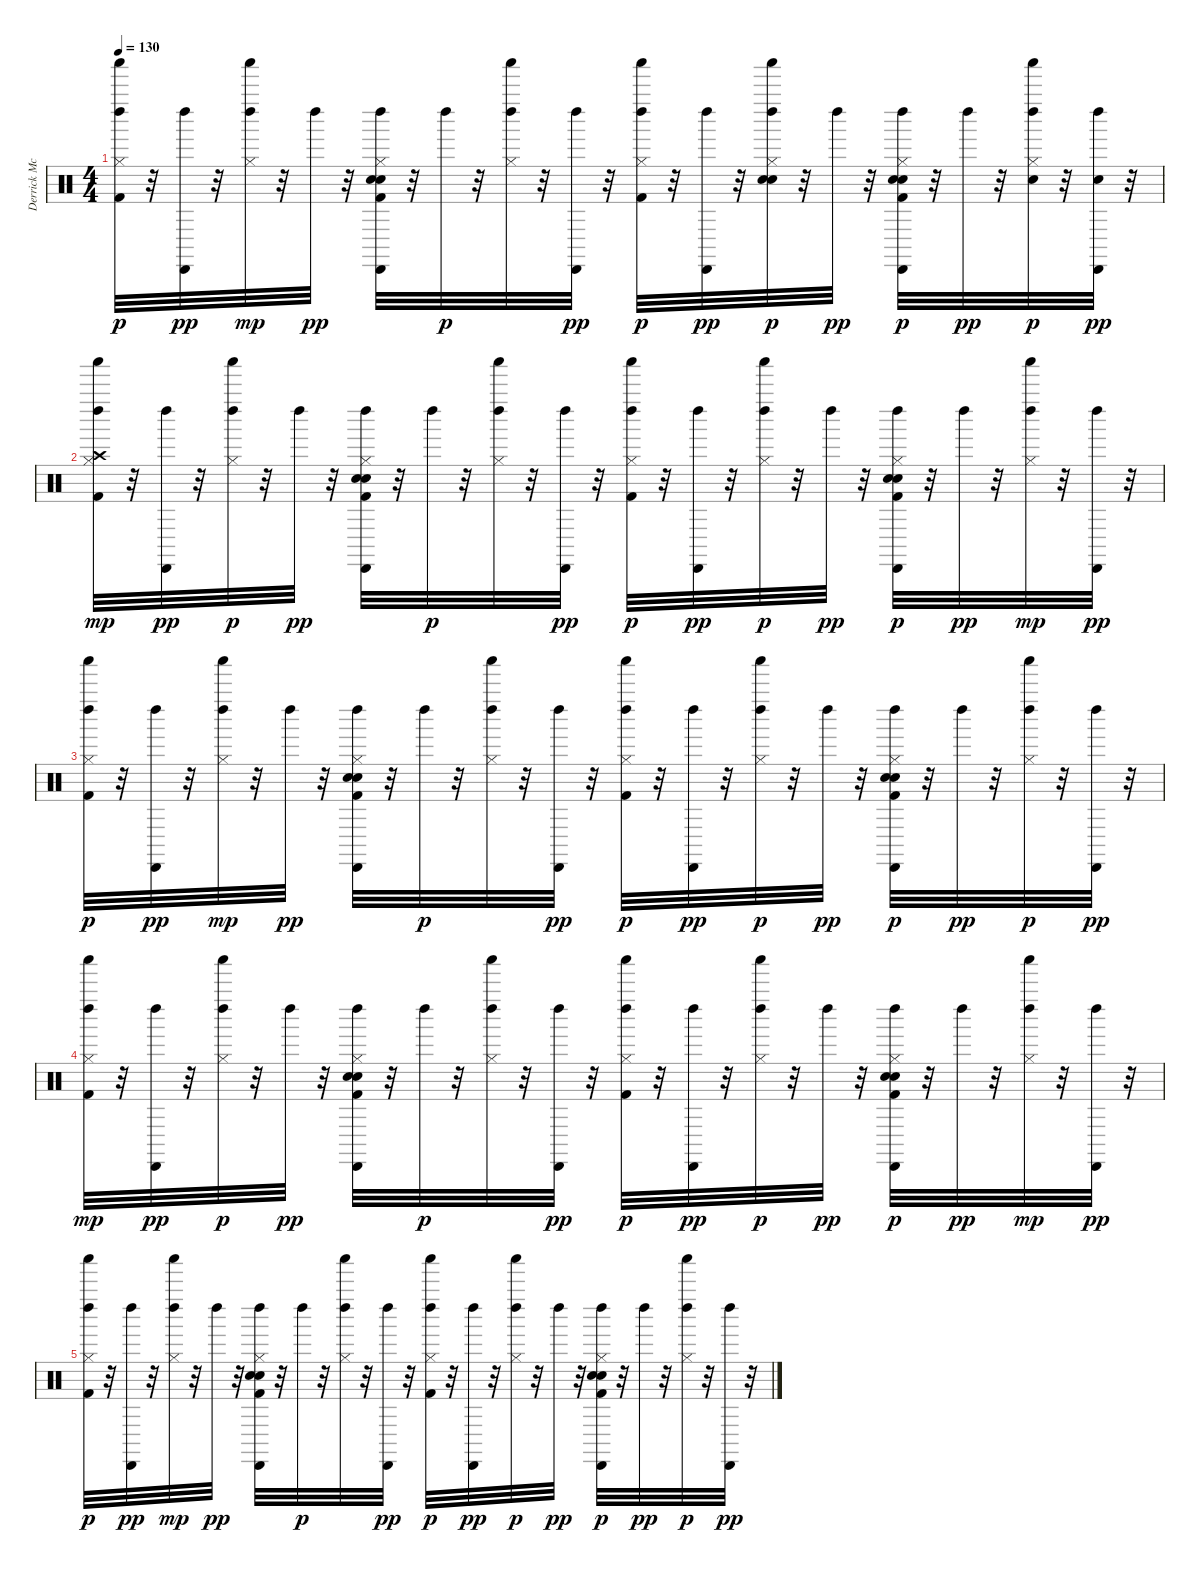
\track ("Derrick McKenzie\\Sola Akingbola - Drums" "Derrick Mc") {instrument percussion}
\staff {score}
\articulation defaults
\ts (4 4)
\tempo 130
\clef neutral
\ks c
("Kick (hit) 2" "Hi-Hat (closed)" "Left Maraca (hit)" "Shaker (hit)").32{dy p} r.32 ("Cabasa (hit)" "Left Maraca (hit)").32{dy pp} r.32 ("Hi-Hat (closed)" "Left Maraca (hit)" "Shaker (hit)").32{dy mp} r.32 "Left Maraca (hit)".32{dy pp} r.32 ("Kick (hit) 2" "Hand Clap (hit)" "Electric Snare (hit)" "Hi-Hat (closed)" "Cabasa (hit)" "Left Maraca (hit)").32 r.32 "Left Maraca (hit)".32{dy p} r.32 ("Hi-Hat (closed)" "Left Maraca (hit)" "Shaker (hit)").32 r.32 ("Cabasa (hit)" "Left Maraca (hit)").32{dy pp} r.32 ("Kick (hit) 2" "Hi-Hat (closed)" "Left Maraca (hit)" "Shaker (hit)").32{dy p} r.32 ("Cabasa (hit)" "Left Maraca (hit)").32{dy pp} r.32 ("Hand Clap (hit)" "Electric Snare (hit)" "Hi-Hat (closed)" "Left Maraca (hit)" "Shaker (hit)").32{dy p} r.32 "Left Maraca (hit)".32{dy pp} r.32 ("Kick (hit) 2" "Hand Clap (hit)" "Electric Snare (hit)" "Hi-Hat (closed)" "Cabasa (hit)" "Left Maraca (hit)").32{dy p} r.32 "Left Maraca (hit)".32{dy pp} r.32 ("Electric Snare (hit)" "Hi-Hat (closed)" "Left Maraca (hit)" "Shaker (hit)").32{dy p} r.32 ("Electric Snare (hit)" "Cabasa (hit)" "Left Maraca (hit)").32{dy pp} r.32 |
("Kick (hit) 2" "Hi-Hat (closed)" "Crash high (hit)" "Left Maraca (hit)" "Shaker (hit)").32{dy mp} r.32 ("Cabasa (hit)" "Left Maraca (hit)").32{dy pp} r.32 ("Hi-Hat (closed)" "Left Maraca (hit)" "Shaker (hit)").32{dy p} r.32 "Left Maraca (hit)".32{dy pp} r.32 ("Kick (hit) 2" "Hand Clap (hit)" "Electric Snare (hit)" "Hi-Hat (closed)" "Cabasa (hit)" "Left Maraca (hit)").32 r.32 "Left Maraca (hit)".32{dy p} r.32 ("Hi-Hat (closed)" "Left Maraca (hit)" "Shaker (hit)").32 r.32 ("Cabasa (hit)" "Left Maraca (hit)").32{dy pp} r.32 ("Kick (hit) 2" "Hi-Hat (closed)" "Left Maraca (hit)" "Shaker (hit)").32{dy p} r.32 ("Cabasa (hit)" "Left Maraca (hit)").32{dy pp} r.32 ("Hi-Hat (closed)" "Left Maraca (hit)" "Shaker (hit)").32{dy p} r.32 "Left Maraca (hit)".32{dy pp} r.32 ("Kick (hit) 2" "Hand Clap (hit)" "Electric Snare (hit)" "Hi-Hat (closed)" "Cabasa (hit)" "Left Maraca (hit)").32{dy p} r.32 "Left Maraca (hit)".32{dy pp} r.32 ("Hi-Hat (closed)" "Left Maraca (hit)" "Shaker (hit)").32{dy mp} r.32 ("Cabasa (hit)" "Left Maraca (hit)").32{dy pp} r.32 |
("Kick (hit) 2" "Hi-Hat (closed)" "Left Maraca (hit)" "Shaker (hit)").32{dy p} r.32 ("Cabasa (hit)" "Left Maraca (hit)").32{dy pp} r.32 ("Hi-Hat (closed)" "Left Maraca (hit)" "Shaker (hit)").32{dy mp} r.32 "Left Maraca (hit)".32{dy pp} r.32 ("Kick (hit) 2" "Hand Clap (hit)" "Electric Snare (hit)" "Hi-Hat (closed)" "Cabasa (hit)" "Left Maraca (hit)").32 r.32 "Left Maraca (hit)".32{dy p} r.32 ("Hi-Hat (closed)" "Left Maraca (hit)" "Shaker (hit)").32 r.32 ("Cabasa (hit)" "Left Maraca (hit)").32{dy pp} r.32 ("Kick (hit) 2" "Hi-Hat (closed)" "Left Maraca (hit)" "Shaker (hit)").32{dy p} r.32 ("Cabasa (hit)" "Left Maraca (hit)").32{dy pp} r.32 ("Hi-Hat (closed)" "Left Maraca (hit)" "Shaker (hit)").32{dy p} r.32 "Left Maraca (hit)".32{dy pp} r.32 ("Kick (hit) 2" "Hand Clap (hit)" "Electric Snare (hit)" "Hi-Hat (closed)" "Cabasa (hit)" "Left Maraca (hit)").32{dy p} r.32 "Left Maraca (hit)".32{dy pp} r.32 ("Hi-Hat (closed)" "Left Maraca (hit)" "Shaker (hit)").32{dy p} r.32 ("Cabasa (hit)" "Left Maraca (hit)").32{dy pp} r.32 |
("Kick (hit) 2" "Hi-Hat (closed)" "Left Maraca (hit)" "Shaker (hit)").32{dy mp} r.32 ("Cabasa (hit)" "Left Maraca (hit)").32{dy pp} r.32 ("Hi-Hat (closed)" "Left Maraca (hit)" "Shaker (hit)").32{dy p} r.32 "Left Maraca (hit)".32{dy pp} r.32 ("Kick (hit) 2" "Hand Clap (hit)" "Electric Snare (hit)" "Hi-Hat (closed)" "Cabasa (hit)" "Left Maraca (hit)").32 r.32 "Left Maraca (hit)".32{dy p} r.32 ("Hi-Hat (closed)" "Left Maraca (hit)" "Shaker (hit)").32 r.32 ("Cabasa (hit)" "Left Maraca (hit)").32{dy pp} r.32 ("Kick (hit) 2" "Hi-Hat (closed)" "Left Maraca (hit)" "Shaker (hit)").32{dy p} r.32 ("Cabasa (hit)" "Left Maraca (hit)").32{dy pp} r.32 ("Hi-Hat (closed)" "Left Maraca (hit)" "Shaker (hit)").32{dy p} r.32 "Left Maraca (hit)".32{dy pp} r.32 ("Kick (hit) 2" "Hand Clap (hit)" "Electric Snare (hit)" "Hi-Hat (closed)" "Cabasa (hit)" "Left Maraca (hit)").32{dy p} r.32 "Left Maraca (hit)".32{dy pp} r.32 ("Hi-Hat (closed)" "Left Maraca (hit)" "Shaker (hit)").32{dy mp} r.32 ("Cabasa (hit)" "Left Maraca (hit)").32{dy pp} r.32 |
("Kick (hit) 2" "Hi-Hat (closed)" "Left Maraca (hit)" "Shaker (hit)").32{dy p} r.32 ("Cabasa (hit)" "Left Maraca (hit)").32{dy pp} r.32 ("Hi-Hat (closed)" "Left Maraca (hit)" "Shaker (hit)").32{dy mp} r.32 "Left Maraca (hit)".32{dy pp} r.32 ("Kick (hit) 2" "Hand Clap (hit)" "Electric Snare (hit)" "Hi-Hat (closed)" "Cabasa (hit)" "Left Maraca (hit)").32 r.32 "Left Maraca (hit)".32{dy p} r.32 ("Hi-Hat (closed)" "Left Maraca (hit)" "Shaker (hit)").32 r.32 ("Cabasa (hit)" "Left Maraca (hit)").32{dy pp} r.32 ("Kick (hit) 2" "Hi-Hat (closed)" "Left Maraca (hit)" "Shaker (hit)").32{dy p} r.32 ("Cabasa (hit)" "Left Maraca (hit)").32{dy pp} r.32 ("Hi-Hat (closed)" "Left Maraca (hit)" "Shaker (hit)").32{dy p} r.32 "Left Maraca (hit)".32{dy pp} r.32 ("Kick (hit) 2" "Hand Clap (hit)" "Electric Snare (hit)" "Hi-Hat (closed)" "Cabasa (hit)" "Left Maraca (hit)").32{dy p} r.32 "Left Maraca (hit)".32{dy pp} r.32 ("Hi-Hat (closed)" "Left Maraca (hit)" "Shaker (hit)").32{dy p} r.32 ("Cabasa (hit)" "Left Maraca (hit)").32{dy pp} r.32
